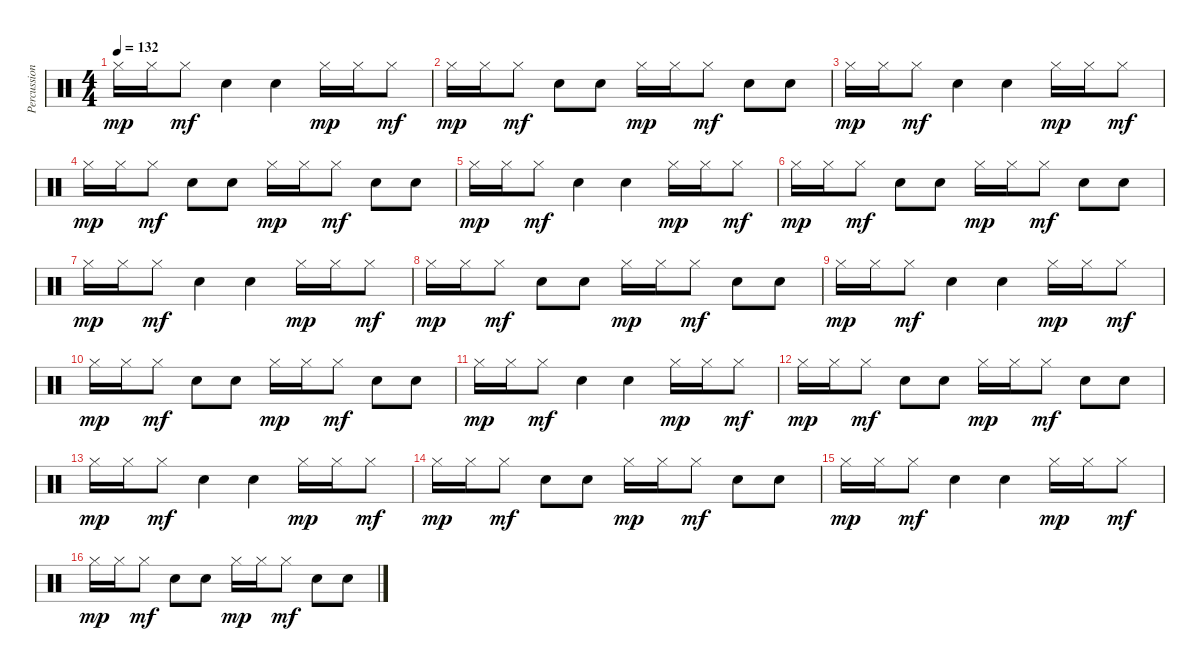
\track ("Percussion" "Percussion") {instrument percussion}
\staff {score}
\articulation defaults
\ts (4 4)
\tempo 132
\clef neutral
\ks c "Hi-Hat (closed)".16{dy mp} "Hi-Hat (closed)".16 "Hi-Hat (closed)".8{dy mf} "Hand Clap (hit)".4 "Hand Clap (hit)".4 "Hi-Hat (closed)".16{dy mp} "Hi-Hat (closed)".16 "Hi-Hat (closed)".8{dy mf}
|
"Hi-Hat (closed)".16{dy mp} "Hi-Hat (closed)".16 "Hi-Hat (closed)".8{dy mf} "Hand Clap (hit)".8 "Hand Clap (hit)".8 "Hi-Hat (closed)".16{dy mp} "Hi-Hat (closed)".16 "Hi-Hat (closed)".8{dy mf} "Hand Clap (hit)".8 "Hand Clap (hit)".8 |
"Hi-Hat (closed)".16{dy mp} "Hi-Hat (closed)".16 "Hi-Hat (closed)".8{dy mf} "Hand Clap (hit)".4 "Hand Clap (hit)".4 "Hi-Hat (closed)".16{dy mp} "Hi-Hat (closed)".16 "Hi-Hat (closed)".8{dy mf} |
"Hi-Hat (closed)".16{dy mp} "Hi-Hat (closed)".16 "Hi-Hat (closed)".8{dy mf} "Hand Clap (hit)".8 "Hand Clap (hit)".8 "Hi-Hat (closed)".16{dy mp} "Hi-Hat (closed)".16 "Hi-Hat (closed)".8{dy mf} "Hand Clap (hit)".8 "Hand Clap (hit)".8 |
"Hi-Hat (closed)".16{dy mp} "Hi-Hat (closed)".16 "Hi-Hat (closed)".8{dy mf} "Hand Clap (hit)".4 "Hand Clap (hit)".4 "Hi-Hat (closed)".16{dy mp} "Hi-Hat (closed)".16 "Hi-Hat (closed)".8{dy mf} |
"Hi-Hat (closed)".16{dy mp} "Hi-Hat (closed)".16 "Hi-Hat (closed)".8{dy mf} "Hand Clap (hit)".8 "Hand Clap (hit)".8 "Hi-Hat (closed)".16{dy mp} "Hi-Hat (closed)".16 "Hi-Hat (closed)".8{dy mf} "Hand Clap (hit)".8 "Hand Clap (hit)".8 |
"Hi-Hat (closed)".16{dy mp} "Hi-Hat (closed)".16 "Hi-Hat (closed)".8{dy mf} "Hand Clap (hit)".4 "Hand Clap (hit)".4 "Hi-Hat (closed)".16{dy mp} "Hi-Hat (closed)".16 "Hi-Hat (closed)".8{dy mf} |
"Hi-Hat (closed)".16{dy mp} "Hi-Hat (closed)".16 "Hi-Hat (closed)".8{dy mf} "Hand Clap (hit)".8 "Hand Clap (hit)".8 "Hi-Hat (closed)".16{dy mp} "Hi-Hat (closed)".16 "Hi-Hat (closed)".8{dy mf} "Hand Clap (hit)".8 "Hand Clap (hit)".8 |
"Hi-Hat (closed)".16{dy mp} "Hi-Hat (closed)".16 "Hi-Hat (closed)".8{dy mf} "Hand Clap (hit)".4 "Hand Clap (hit)".4 "Hi-Hat (closed)".16{dy mp} "Hi-Hat (closed)".16 "Hi-Hat (closed)".8{dy mf} |
"Hi-Hat (closed)".16{dy mp} "Hi-Hat (closed)".16 "Hi-Hat (closed)".8{dy mf} "Hand Clap (hit)".8 "Hand Clap (hit)".8 "Hi-Hat (closed)".16{dy mp} "Hi-Hat (closed)".16 "Hi-Hat (closed)".8{dy mf} "Hand Clap (hit)".8 "Hand Clap (hit)".8 |
"Hi-Hat (closed)".16{dy mp} "Hi-Hat (closed)".16 "Hi-Hat (closed)".8{dy mf} "Hand Clap (hit)".4 "Hand Clap (hit)".4 "Hi-Hat (closed)".16{dy mp} "Hi-Hat (closed)".16 "Hi-Hat (closed)".8{dy mf} |
"Hi-Hat (closed)".16{dy mp} "Hi-Hat (closed)".16 "Hi-Hat (closed)".8{dy mf} "Hand Clap (hit)".8 "Hand Clap (hit)".8 "Hi-Hat (closed)".16{dy mp} "Hi-Hat (closed)".16 "Hi-Hat (closed)".8{dy mf} "Hand Clap (hit)".8 "Hand Clap (hit)".8 |
"Hi-Hat (closed)".16{dy mp} "Hi-Hat (closed)".16 "Hi-Hat (closed)".8{dy mf} "Hand Clap (hit)".4 "Hand Clap (hit)".4 "Hi-Hat (closed)".16{dy mp} "Hi-Hat (closed)".16 "Hi-Hat (closed)".8{dy mf} |
"Hi-Hat (closed)".16{dy mp} "Hi-Hat (closed)".16 "Hi-Hat (closed)".8{dy mf} "Hand Clap (hit)".8 "Hand Clap (hit)".8 "Hi-Hat (closed)".16{dy mp} "Hi-Hat (closed)".16 "Hi-Hat (closed)".8{dy mf} "Hand Clap (hit)".8 "Hand Clap (hit)".8 |
"Hi-Hat (closed)".16{dy mp} "Hi-Hat (closed)".16 "Hi-Hat (closed)".8{dy mf} "Hand Clap (hit)".4 "Hand Clap (hit)".4 "Hi-Hat (closed)".16{dy mp} "Hi-Hat (closed)".16 "Hi-Hat (closed)".8{dy mf} |
"Hi-Hat (closed)".16{dy mp} "Hi-Hat (closed)".16 "Hi-Hat (closed)".8{dy mf} "Hand Clap (hit)".8 "Hand Clap (hit)".8 "Hi-Hat (closed)".16{dy mp} "Hi-Hat (closed)".16 "Hi-Hat (closed)".8{dy mf} "Hand Clap (hit)".8 "Hand Clap (hit)".8
